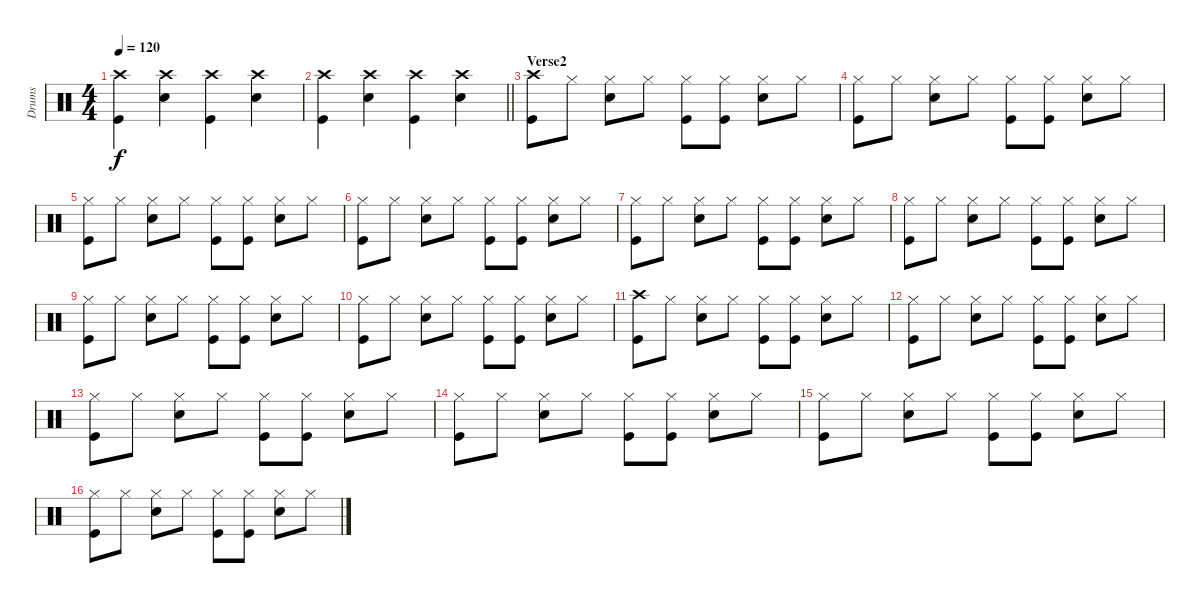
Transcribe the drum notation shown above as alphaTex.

\track ("Drums" "Drums") {instrument percussion}
\staff {score}
\articulation defaults
\ts (4 4)
\tempo 120
\clef neutral
\ks c
("Crash high (hit)" "Kick (hit)").4{dy f} ("Crash high (hit)" "Snare (hit) 2").4 ("Crash high (hit)" "Kick (hit)").4 ("Crash high (hit)" "Snare (hit) 2").4 |
\barLineRight lightlight
("Crash high (hit)" "Kick (hit)").4 ("Crash high (hit)" "Snare (hit) 2").4 ("Crash high (hit)" "Kick (hit)").4 ("Crash high (hit)" "Snare (hit) 2").4 |
\section ("" "Verse2")
("Crash high (hit)" "Kick (hit)").8 "Hi-Hat (closed)".8 ("Hi-Hat (closed)" "Snare (hit) 2").8 "Hi-Hat (closed)".8 ("Hi-Hat (closed)" "Kick (hit)").8 ("Hi-Hat (closed)" "Kick (hit)").8 ("Hi-Hat (closed)" "Snare (hit) 2").8 "Hi-Hat (closed)".8 |
("Hi-Hat (closed)" "Kick (hit)").8 "Hi-Hat (closed)".8 ("Hi-Hat (closed)" "Snare (hit) 2").8 "Hi-Hat (closed)".8 ("Hi-Hat (closed)" "Kick (hit)").8 ("Hi-Hat (closed)" "Kick (hit)").8 ("Hi-Hat (closed)" "Snare (hit) 2").8 "Hi-Hat (closed)".8 |
("Hi-Hat (closed)" "Kick (hit)").8 "Hi-Hat (closed)".8 ("Hi-Hat (closed)" "Snare (hit) 2").8 "Hi-Hat (closed)".8 ("Hi-Hat (closed)" "Kick (hit)").8 ("Hi-Hat (closed)" "Kick (hit)").8 ("Hi-Hat (closed)" "Snare (hit) 2").8 "Hi-Hat (closed)".8 |
("Hi-Hat (closed)" "Kick (hit)").8 "Hi-Hat (closed)".8 ("Hi-Hat (closed)" "Snare (hit) 2").8 "Hi-Hat (closed)".8 ("Hi-Hat (closed)" "Kick (hit)").8 ("Hi-Hat (closed)" "Kick (hit)").8 ("Hi-Hat (closed)" "Snare (hit) 2").8 "Hi-Hat (closed)".8 |
("Hi-Hat (closed)" "Kick (hit)").8 "Hi-Hat (closed)".8 ("Hi-Hat (closed)" "Snare (hit) 2").8 "Hi-Hat (closed)".8 ("Hi-Hat (closed)" "Kick (hit)").8 ("Hi-Hat (closed)" "Kick (hit)").8 ("Hi-Hat (closed)" "Snare (hit) 2").8 "Hi-Hat (closed)".8 |
("Hi-Hat (closed)" "Kick (hit)").8 "Hi-Hat (closed)".8 ("Hi-Hat (closed)" "Snare (hit) 2").8 "Hi-Hat (closed)".8 ("Hi-Hat (closed)" "Kick (hit)").8 ("Hi-Hat (closed)" "Kick (hit)").8 ("Hi-Hat (closed)" "Snare (hit) 2").8 "Hi-Hat (closed)".8 |
("Hi-Hat (closed)" "Kick (hit)").8 "Hi-Hat (closed)".8 ("Hi-Hat (closed)" "Snare (hit) 2").8 "Hi-Hat (closed)".8 ("Hi-Hat (closed)" "Kick (hit)").8 ("Hi-Hat (closed)" "Kick (hit)").8 ("Hi-Hat (closed)" "Snare (hit) 2").8 "Hi-Hat (closed)".8 |
("Hi-Hat (closed)" "Kick (hit)").8 "Hi-Hat (closed)".8 ("Hi-Hat (closed)" "Snare (hit) 2").8 "Hi-Hat (closed)".8 ("Hi-Hat (closed)" "Kick (hit)").8 ("Hi-Hat (closed)" "Kick (hit)").8 ("Hi-Hat (closed)" "Snare (hit) 2").8 "Hi-Hat (closed)".8 |
("Crash high (hit)" "Kick (hit)").8 "Hi-Hat (closed)".8 ("Hi-Hat (closed)" "Snare (hit) 2").8 "Hi-Hat (closed)".8 ("Hi-Hat (closed)" "Kick (hit)").8 ("Hi-Hat (closed)" "Kick (hit)").8 ("Hi-Hat (closed)" "Snare (hit) 2").8 "Hi-Hat (closed)".8 |
("Hi-Hat (closed)" "Kick (hit)").8 "Hi-Hat (closed)".8 ("Hi-Hat (closed)" "Snare (hit) 2").8 "Hi-Hat (closed)".8 ("Hi-Hat (closed)" "Kick (hit)").8 ("Hi-Hat (closed)" "Kick (hit)").8 ("Hi-Hat (closed)" "Snare (hit) 2").8 "Hi-Hat (closed)".8 |
("Hi-Hat (closed)" "Kick (hit)").8 "Hi-Hat (closed)".8 ("Hi-Hat (closed)" "Snare (hit) 2").8 "Hi-Hat (closed)".8 ("Hi-Hat (closed)" "Kick (hit)").8 ("Hi-Hat (closed)" "Kick (hit)").8 ("Hi-Hat (closed)" "Snare (hit) 2").8 "Hi-Hat (closed)".8 |
("Hi-Hat (closed)" "Kick (hit)").8 "Hi-Hat (closed)".8 ("Hi-Hat (closed)" "Snare (hit) 2").8 "Hi-Hat (closed)".8 ("Hi-Hat (closed)" "Kick (hit)").8 ("Hi-Hat (closed)" "Kick (hit)").8 ("Hi-Hat (closed)" "Snare (hit) 2").8 "Hi-Hat (closed)".8 |
("Hi-Hat (closed)" "Kick (hit)").8 "Hi-Hat (closed)".8 ("Hi-Hat (closed)" "Snare (hit) 2").8 "Hi-Hat (closed)".8 ("Hi-Hat (closed)" "Kick (hit)").8 ("Hi-Hat (closed)" "Kick (hit)").8 ("Hi-Hat (closed)" "Snare (hit) 2").8 "Hi-Hat (closed)".8 |
("Hi-Hat (closed)" "Kick (hit)").8 "Hi-Hat (closed)".8 ("Hi-Hat (closed)" "Snare (hit) 2").8 "Hi-Hat (closed)".8 ("Hi-Hat (closed)" "Kick (hit)").8 ("Hi-Hat (closed)" "Kick (hit)").8 ("Hi-Hat (closed)" "Snare (hit) 2").8 "Hi-Hat (closed)".8
